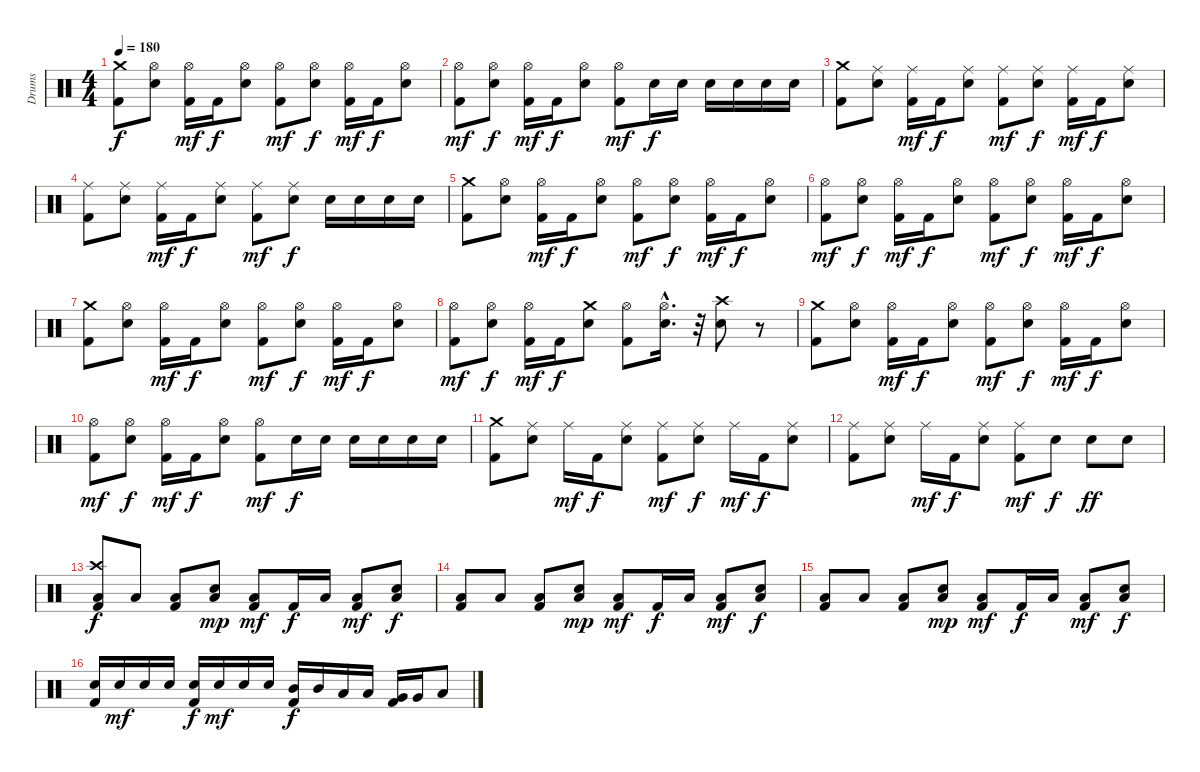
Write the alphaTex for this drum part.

\track ("Drums" "Drums") {instrument percussion}
\staff {score}
\articulation defaults
\ts (4 4)
\tempo 180
\clef neutral
\ks c
("Crash medium (hit)" "Kick (hit) 2").8{dy f} ("Hi-Hat (open)" "Electric Snare (hit)").8 ("Hi-Hat (open)" "Kick (hit) 2").16{dy mf} "Kick (hit) 2".16{dy f} ("Hi-Hat (open)" "Electric Snare (hit)").8 ("Hi-Hat (open)" "Kick (hit) 2").8{dy mf} ("Hi-Hat (open)" "Electric Snare (hit)").8{dy f} ("Hi-Hat (open)" "Kick (hit) 2").16{dy mf} "Kick (hit) 2".16{dy f} ("Hi-Hat (open)" "Electric Snare (hit)").8 |
("Hi-Hat (open)" "Kick (hit) 2").8{dy mf} ("Hi-Hat (open)" "Electric Snare (hit)").8{dy f} ("Hi-Hat (open)" "Kick (hit) 2").16{dy mf} "Kick (hit) 2".16{dy f} ("Hi-Hat (open)" "Electric Snare (hit)").8 ("Hi-Hat (open)" "Kick (hit) 2").8{dy mf} "Electric Snare (hit)".16{dy f} "Electric Snare (hit)".16 "Electric Snare (hit)".16 "Electric Snare (hit)".16 "Electric Snare (hit)".16 "Electric Snare (hit)".16 |
("Crash medium (hit)" "Kick (hit) 2").8 ("Ride (middle)" "Electric Snare (hit)").8 ("Ride (middle)" "Kick (hit) 2").16{dy mf} "Kick (hit) 2".16{dy f} ("Ride (middle)" "Electric Snare (hit)").8 ("Ride (middle)" "Kick (hit) 2").8{dy mf} ("Ride (middle)" "Electric Snare (hit)").8{dy f} ("Ride (middle)" "Kick (hit) 2").16{dy mf} "Kick (hit) 2".16{dy f} ("Ride (middle)" "Electric Snare (hit)").8 |
("Ride (middle)" "Kick (hit) 2").8 ("Ride (middle)" "Electric Snare (hit)").8 ("Ride (middle)" "Kick (hit) 2").16{dy mf} "Kick (hit) 2".16{dy f} ("Ride (middle)" "Electric Snare (hit)").8 ("Ride (middle)" "Kick (hit) 2").8{dy mf} ("Ride (middle)" "Electric Snare (hit)").8{dy f} "Electric Snare (hit)".16 "Electric Snare (hit)".16 "Electric Snare (hit)".16 "Electric Snare (hit)".16 |
("Crash medium (hit)" "Kick (hit) 2").8 ("Hi-Hat (open)" "Electric Snare (hit)").8 ("Hi-Hat (open)" "Kick (hit) 2").16{dy mf} "Kick (hit) 2".16{dy f} ("Hi-Hat (open)" "Electric Snare (hit)").8 ("Hi-Hat (open)" "Kick (hit) 2").8{dy mf} ("Hi-Hat (open)" "Electric Snare (hit)").8{dy f} ("Hi-Hat (open)" "Kick (hit) 2").16{dy mf} "Kick (hit) 2".16{dy f} ("Hi-Hat (open)" "Electric Snare (hit)").8 |
("Hi-Hat (open)" "Kick (hit) 2").8{dy mf} ("Hi-Hat (open)" "Electric Snare (hit)").8{dy f} ("Hi-Hat (open)" "Kick (hit) 2").16{dy mf} "Kick (hit) 2".16{dy f} ("Hi-Hat (open)" "Electric Snare (hit)").8 ("Hi-Hat (open)" "Kick (hit) 2").8{dy mf} ("Hi-Hat (open)" "Electric Snare (hit)").8{dy f} ("Hi-Hat (open)" "Kick (hit) 2").16{dy mf} "Kick (hit) 2".16{dy f} ("Hi-Hat (open)" "Electric Snare (hit)").8 |
("Crash medium (hit)" "Kick (hit) 2").8 ("Hi-Hat (open)" "Electric Snare (hit)").8 ("Hi-Hat (open)" "Kick (hit) 2").16{dy mf} "Kick (hit) 2".16{dy f} ("Hi-Hat (open)" "Electric Snare (hit)").8 ("Hi-Hat (open)" "Kick (hit) 2").8{dy mf} ("Hi-Hat (open)" "Electric Snare (hit)").8{dy f} ("Hi-Hat (open)" "Kick (hit) 2").16{dy mf} "Kick (hit) 2".16{dy f} ("Hi-Hat (open)" "Electric Snare (hit)").8 |
("Hi-Hat (open)" "Kick (hit) 2").8{dy mf} ("Hi-Hat (open)" "Electric Snare (hit)").8{dy f} ("Hi-Hat (open)" "Kick (hit) 2").16{dy mf} "Kick (hit) 2".16{dy f} ("Crash medium (hit)" "Electric Snare (hit)").8 ("Hi-Hat (open)" "Kick (hit) 2").8 ("Hi-Hat (open)"{hac} "Electric Snare (hit)"{hac}).16{d} r.32 ("Crash high (hit)" "Electric Snare (hit)").8 r.8 |
("Crash medium (hit)" "Kick (hit) 2").8 ("Hi-Hat (open)" "Electric Snare (hit)").8 ("Hi-Hat (open)" "Kick (hit) 2").16{dy mf} "Kick (hit) 2".16{dy f} ("Hi-Hat (open)" "Electric Snare (hit)").8 ("Hi-Hat (open)" "Kick (hit) 2").8{dy mf} ("Hi-Hat (open)" "Electric Snare (hit)").8{dy f} ("Hi-Hat (open)" "Kick (hit) 2").16{dy mf} "Kick (hit) 2".16{dy f} ("Hi-Hat (open)" "Electric Snare (hit)").8 |
("Hi-Hat (open)" "Kick (hit) 2").8{dy mf} ("Hi-Hat (open)" "Electric Snare (hit)").8{dy f} ("Hi-Hat (open)" "Kick (hit) 2").16{dy mf} "Kick (hit) 2".16{dy f} ("Hi-Hat (open)" "Electric Snare (hit)").8 ("Hi-Hat (open)" "Kick (hit) 2").8{dy mf} "Electric Snare (hit)".16{dy f} "Electric Snare (hit)".16 "Electric Snare (hit)".16 "Electric Snare (hit)".16 "Electric Snare (hit)".16 "Electric Snare (hit)".16 |
("Crash medium (hit)" "Kick (hit) 2").8 ("Ride (middle)" "Electric Snare (hit)").8 "Ride (middle)".16{dy mf} "Kick (hit) 2".16{dy f} ("Ride (middle)" "Electric Snare (hit)").8 ("Ride (middle)" "Kick (hit) 2").8{dy mf} ("Ride (middle)" "Electric Snare (hit)").8{dy f} "Ride (middle)".16{dy mf} "Kick (hit) 2".16{dy f} ("Ride (middle)" "Electric Snare (hit)").8 |
("Ride (middle)" "Kick (hit) 2").8 ("Ride (middle)" "Electric Snare (hit)").8 "Ride (middle)".16{dy mf} "Kick (hit) 2".16{dy f} ("Ride (middle)" "Electric Snare (hit)").8 ("Ride (middle)" "Kick (hit) 2").8{dy mf} "Electric Snare (hit)".8{dy f} "Electric Snare (hit)".8{dy ff} "Electric Snare (hit)".8 |
("Crash high (hit)" "Low Tom (hit)" "Kick (hit) 2").8{dy f} "Low Tom (hit)".8 ("Low Tom (hit)" "Kick (hit) 2").8 ("Low Tom (hit)" "Electric Snare (hit)").8{dy mp} ("Low Tom (hit)" "Kick (hit) 2").8{dy mf} "Kick (hit) 2".16{dy f} "Low Tom (hit)".16 ("Low Tom (hit)" "Kick (hit) 2").8{dy mf} ("Low Tom (hit)" "Electric Snare (hit)").8{dy f} |
("Low Tom (hit)" "Kick (hit) 2").8 "Low Tom (hit)".8 ("Low Tom (hit)" "Kick (hit) 2").8 ("Low Tom (hit)" "Electric Snare (hit)").8{dy mp} ("Low Tom (hit)" "Kick (hit) 2").8{dy mf} "Kick (hit) 2".16{dy f} "Low Tom (hit)".16 ("Low Tom (hit)" "Kick (hit) 2").8{dy mf} ("Low Tom (hit)" "Electric Snare (hit)").8{dy f} |
("Low Tom (hit)" "Kick (hit) 2").8 "Low Tom (hit)".8 ("Low Tom (hit)" "Kick (hit) 2").8 ("Low Tom (hit)" "Electric Snare (hit)").8{dy mp} ("Low Tom (hit)" "Kick (hit) 2").8{dy mf} "Kick (hit) 2".16{dy f} "Low Tom (hit)".16 ("Low Tom (hit)" "Kick (hit) 2").8{dy mf} ("Low Tom (hit)" "Electric Snare (hit)").8{dy f} |
("Electric Snare (hit)" "Kick (hit) 2").16 "Electric Snare (hit)".16{dy mf} "Electric Snare (hit)".16 "Electric Snare (hit)".16 ("Electric Snare (hit)" "Kick (hit) 2").16{dy f} "Electric Snare (hit)".16{dy mf} "Electric Snare (hit)".16 "Electric Snare (hit)".16 ("Mid Tom (hit)" "Kick (hit) 2").16{dy f} "Mid Tom (hit)".16 "Low Tom (hit)".16 "Low Tom (hit)".16 ("Very Low Tom (hit)" "Kick (hit) 2").16 "Very Low Tom (hit)".16 "Low Floor Tom (hit)".8
